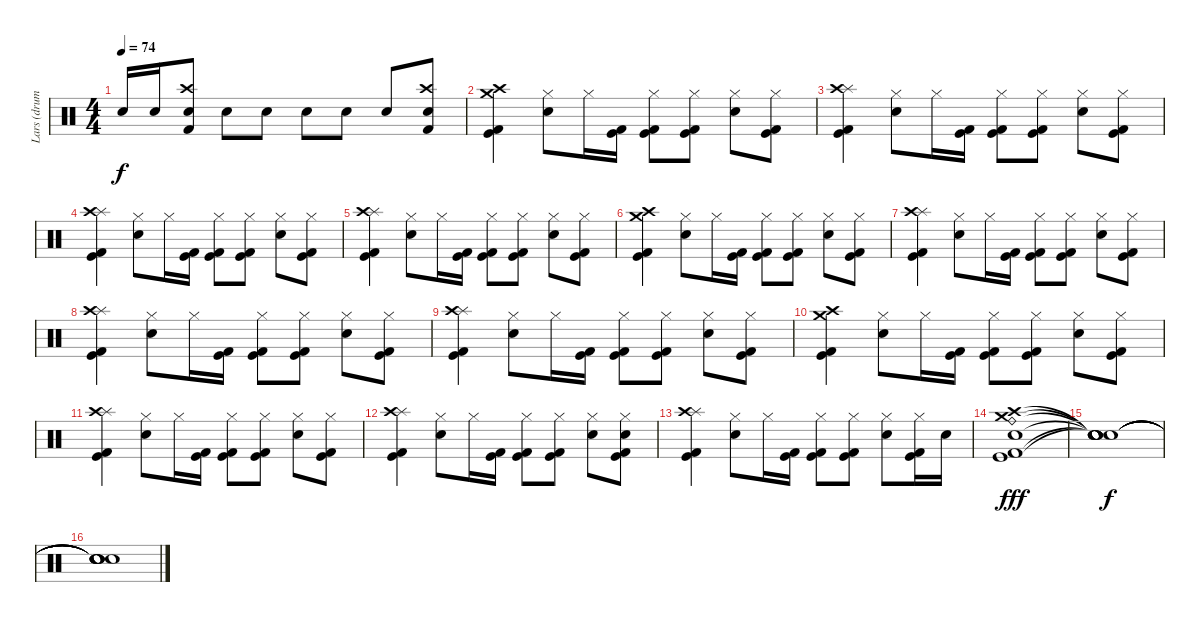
\track ("Lars (drums)" "Lars (drum") {instrument percussion}
\staff {score}
\articulation defaults
\ts (4 4)
\tempo 74
\clef neutral
\ks c "Snare (hit) 2".16{dy f} "Snare (hit) 2".16
("Crash high (hit)" "Kick (hit) 2" "Snare (hit) 2").8 "Snare (hit) 2".8 "Snare (hit) 2".8 "Snare (hit) 2".8 "Snare (hit) 2".8 "Snare (hit) 2".8 ("Crash high (hit)" "Kick (hit) 2" "Snare (hit) 2").8 |
("Crash medium (hit)" "Crash high (hit)" "Kick (hit) 2" "Kick (hit)").4 ("Hi-Hat (closed)" "Electric Snare (hit)").8 "Hi-Hat (closed)".16 ("Kick (hit) 2" "Kick (hit)").16 ("Hi-Hat (closed)" "Kick (hit) 2" "Kick (hit)").8 ("Hi-Hat (closed)" "Kick (hit)" "Kick (hit) 2").8 ("Hi-Hat (closed)" "Electric Snare (hit)").8 ("Hi-Hat (closed)" "Kick (hit) 2" "Kick (hit)").8 |
("Splash (hit)" "Crash high (hit)" "Kick (hit) 2" "Kick (hit)").4 ("Hi-Hat (closed)" "Electric Snare (hit)").8 "Hi-Hat (closed)".16 ("Kick (hit) 2" "Kick (hit)").16 ("Hi-Hat (closed)" "Kick (hit) 2" "Kick (hit)").8 ("Hi-Hat (closed)" "Kick (hit)" "Kick (hit) 2").8 ("Hi-Hat (closed)" "Electric Snare (hit)").8 ("Hi-Hat (closed)" "Kick (hit) 2" "Kick (hit)").8 |
("Splash (hit)" "Crash high (hit)" "Kick (hit) 2" "Kick (hit)").4 ("Hi-Hat (closed)" "Electric Snare (hit)").8 "Hi-Hat (closed)".16 ("Kick (hit) 2" "Kick (hit)").16 ("Hi-Hat (closed)" "Kick (hit) 2" "Kick (hit)").8 ("Hi-Hat (closed)" "Kick (hit)" "Kick (hit) 2").8 ("Hi-Hat (closed)" "Electric Snare (hit)").8 ("Hi-Hat (closed)" "Kick (hit) 2" "Kick (hit)").8 |
("Splash (hit)" "Crash high (hit)" "Kick (hit) 2" "Kick (hit)").4 ("Hi-Hat (closed)" "Electric Snare (hit)").8 "Hi-Hat (closed)".16 ("Kick (hit) 2" "Kick (hit)").16 ("Hi-Hat (closed)" "Kick (hit) 2" "Kick (hit)").8 ("Hi-Hat (closed)" "Kick (hit)" "Kick (hit) 2").8 ("Hi-Hat (closed)" "Electric Snare (hit)").8 ("Hi-Hat (closed)" "Kick (hit) 2" "Kick (hit)").8 |
("Crash medium (hit)" "Crash high (hit)" "Kick (hit) 2" "Kick (hit)").4 ("Hi-Hat (closed)" "Electric Snare (hit)").8 "Hi-Hat (closed)".16 ("Kick (hit) 2" "Kick (hit)").16 ("Hi-Hat (closed)" "Kick (hit) 2" "Kick (hit)").8 ("Hi-Hat (closed)" "Kick (hit)" "Kick (hit) 2").8 ("Hi-Hat (closed)" "Electric Snare (hit)").8 ("Hi-Hat (closed)" "Kick (hit) 2" "Kick (hit)").8 |
("Splash (hit)" "Crash high (hit)" "Kick (hit) 2" "Kick (hit)").4 ("Hi-Hat (closed)" "Electric Snare (hit)").8 "Hi-Hat (closed)".16 ("Kick (hit) 2" "Kick (hit)").16 ("Hi-Hat (closed)" "Kick (hit) 2" "Kick (hit)").8 ("Hi-Hat (closed)" "Kick (hit)" "Kick (hit) 2").8 ("Hi-Hat (closed)" "Electric Snare (hit)").8 ("Hi-Hat (closed)" "Kick (hit) 2" "Kick (hit)").8 |
("Splash (hit)" "Crash high (hit)" "Kick (hit) 2" "Kick (hit)").4 ("Hi-Hat (closed)" "Electric Snare (hit)").8 "Hi-Hat (closed)".16 ("Kick (hit) 2" "Kick (hit)").16 ("Hi-Hat (closed)" "Kick (hit) 2" "Kick (hit)").8 ("Hi-Hat (closed)" "Kick (hit)" "Kick (hit) 2").8 ("Hi-Hat (closed)" "Electric Snare (hit)").8 ("Hi-Hat (closed)" "Kick (hit) 2" "Kick (hit)").8 |
("Splash (hit)" "Crash high (hit)" "Kick (hit) 2" "Kick (hit)").4 ("Hi-Hat (closed)" "Electric Snare (hit)").8 "Hi-Hat (closed)".16 ("Kick (hit) 2" "Kick (hit)").16 ("Hi-Hat (closed)" "Kick (hit) 2" "Kick (hit)").8 ("Hi-Hat (closed)" "Kick (hit)" "Kick (hit) 2").8 ("Hi-Hat (closed)" "Electric Snare (hit)").8 ("Hi-Hat (closed)" "Kick (hit) 2" "Kick (hit)").8 |
("Crash medium (hit)" "Crash high (hit)" "Kick (hit) 2" "Kick (hit)").4 ("Hi-Hat (closed)" "Electric Snare (hit)").8 "Hi-Hat (closed)".16 ("Kick (hit) 2" "Kick (hit)").16 ("Hi-Hat (closed)" "Kick (hit) 2" "Kick (hit)").8 ("Hi-Hat (closed)" "Kick (hit)" "Kick (hit) 2").8 ("Hi-Hat (closed)" "Electric Snare (hit)").8 ("Hi-Hat (closed)" "Kick (hit) 2" "Kick (hit)").8 |
("Splash (hit)" "Crash high (hit)" "Kick (hit) 2" "Kick (hit)").4 ("Hi-Hat (closed)" "Electric Snare (hit)").8 "Hi-Hat (closed)".16 ("Kick (hit) 2" "Kick (hit)").16 ("Hi-Hat (closed)" "Kick (hit) 2" "Kick (hit)").8 ("Hi-Hat (closed)" "Kick (hit)" "Kick (hit) 2").8 ("Hi-Hat (closed)" "Electric Snare (hit)").8 ("Hi-Hat (closed)" "Kick (hit) 2" "Kick (hit)").8 |
("Splash (hit)" "Crash high (hit)" "Kick (hit) 2" "Kick (hit)").4 ("Hi-Hat (closed)" "Electric Snare (hit)").8 "Hi-Hat (closed)".16 ("Kick (hit) 2" "Kick (hit)").16 ("Hi-Hat (closed)" "Kick (hit) 2" "Kick (hit)").8 ("Hi-Hat (closed)" "Kick (hit)" "Kick (hit) 2").8 ("Hi-Hat (closed)" "Electric Snare (hit)").8 ("Hi-Hat (closed)" "Electric Snare (hit)" "Kick (hit) 2" "Kick (hit)").8 |
("Splash (hit)" "Crash high (hit)" "Kick (hit) 2" "Kick (hit)").4 ("Hi-Hat (closed)" "Electric Snare (hit)").8 "Hi-Hat (closed)".16 ("Kick (hit) 2" "Kick (hit)").16 ("Hi-Hat (closed)" "Kick (hit) 2" "Kick (hit)").8 ("Hi-Hat (closed)" "Kick (hit)" "Kick (hit) 2").8 ("Hi-Hat (closed)" "Electric Snare (hit)").8 ("Hi-Hat (closed)" "Kick (hit) 2" "Kick (hit)").16 "Electric Snare (hit)".16 |
("Crash high (hit)" "Crash medium (hit)" "Electric Snare (hit)" "Ride (bell)" "Kick (hit) 2" "Kick (hit)").1{dy fff} |
("Snare (hit)"{t} "Snare (hit)"{t} "Snare (hit)"{t} "Snare (hit)"{t} "Snare (hit)"{t} "Snare (hit)"{t}).1{dy f} |
("Snare (hit)"{t} "Snare (hit)"{t} "Snare (hit)"{t} "Snare (hit)"{t} "Snare (hit)"{t} "Snare (hit)"{t}).1
